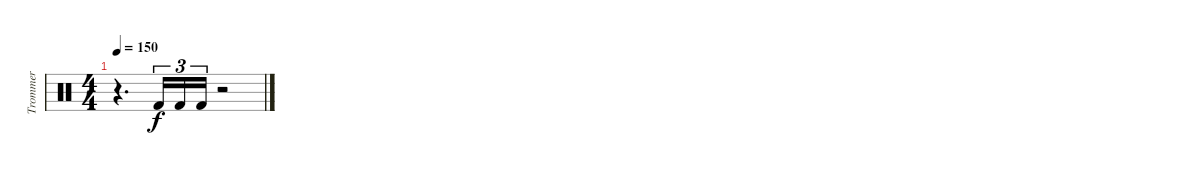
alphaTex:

\track ("Trommer" "Trommer") {instrument percussion}
\staff {score}
\articulation defaults
\ts (4 4)
\tempo 150
\clef neutral
\ks c
r.4{d dy fff} "Kick (hit) 2".16{tu (3 2) dy f} "Kick (hit) 2".16{tu (3 2)} "Kick (hit) 2".16{tu (3 2)} r.2
